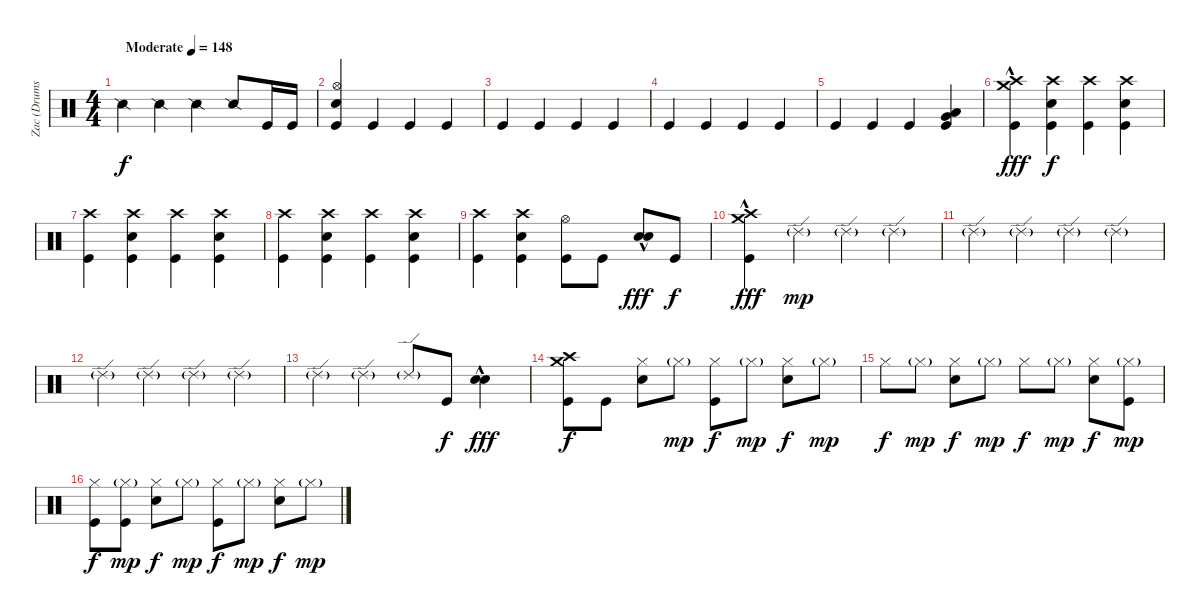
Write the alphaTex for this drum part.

\track ("Zac (Drums)" "Zac (Drums") {instrument percussion}
\staff {score}
\articulation defaults
\ts (4 4)
\tempo (148 "Moderate")
\clef neutral
\ks c "Snare (side stick) 2".4{dy f} "Snare (side stick) 2".4 "Snare (side stick) 2".4 "Snare (side stick) 2".8 "Kick (hit)".16 "Kick (hit)".16
|
("Hi-Hat (open)" "Electric Snare (hit)" "Kick (hit)").4 "Kick (hit)".4 "Kick (hit)".4 "Kick (hit)".4 |
"Kick (hit)".4 "Kick (hit)".4 "Kick (hit)".4 "Kick (hit)".4 |
"Kick (hit)".4 "Kick (hit)".4 "Kick (hit)".4 "Kick (hit)".4 |
"Kick (hit)".4 "Kick (hit)".4 "Kick (hit)".4 ("Low Tom (hit)" "Very Low Tom (hit)" "Kick (hit)").4 |
("Crash high (hit)"{hac} "Crash medium (hit)" "Kick (hit)").4{dy fff} ("Crash high (hit)" "Electric Snare (hit)" "Kick (hit)").4{dy f} ("Crash high (hit)" "Kick (hit)").4 ("Crash high (hit)" "Electric Snare (hit)" "Kick (hit)").4 |
("Crash high (hit)" "Kick (hit)").4 ("Crash high (hit)" "Electric Snare (hit)" "Kick (hit)").4 ("Crash high (hit)" "Kick (hit)").4 ("Crash high (hit)" "Electric Snare (hit)" "Kick (hit)").4 |
("Crash high (hit)" "Kick (hit)").4 ("Crash high (hit)" "Electric Snare (hit)" "Kick (hit)").4 ("Crash high (hit)" "Kick (hit)").4 ("Crash high (hit)" "Electric Snare (hit)" "Kick (hit)").4 |
("Crash high (hit)" "Kick (hit)").4 ("Crash high (hit)" "Electric Snare (hit)" "Kick (hit)").4 ("Hi-Hat (open)" "Kick (hit)").8 "Kick (hit)".8 ("Electric Snare (hit)"{hac} "Electric Snare (hit)"{hac}).8{dy fff} "Kick (hit)".8{dy f} |
("Crash high (hit)"{hac} "Crash medium (hit)" "Kick (hit)").4{dy fff} "Ride (edge) 2"{g}.4{dy mp} "Ride (edge) 2"{g}.4 "Ride (edge) 2"{g}.4 |
"Ride (edge) 2"{g}.4 "Ride (edge) 2"{g}.4 "Ride (edge) 2"{g}.4 "Ride (edge) 2"{g}.4 |
"Ride (edge) 2"{g}.4 "Ride (edge) 2"{g}.4 "Ride (edge) 2"{g}.4 "Ride (edge) 2"{g}.4 |
"Ride (edge) 2"{g}.4 "Ride (edge) 2"{g}.4 "Ride (edge) 2"{g}.8 "Kick (hit)".8{dy f} ("Electric Snare (hit)"{hac} "Electric Snare (hit)"{hac}).4{dy fff} |
("Crash high (hit)" "Crash medium (hit)" "Kick (hit)").8{dy f} "Kick (hit)".8 ("Hi-Hat (closed)" "Electric Snare (hit)").8 "Hi-Hat (closed)"{g}.8{dy mp} ("Hi-Hat (closed)" "Kick (hit)").8{dy f} "Hi-Hat (closed)"{g}.8{dy mp} ("Hi-Hat (closed)" "Electric Snare (hit)").8{dy f} "Hi-Hat (closed)"{g}.8{dy mp} |
"Hi-Hat (closed)".8{dy f} "Hi-Hat (closed)"{g}.8{dy mp} ("Hi-Hat (closed)" "Electric Snare (hit)").8{dy f} "Hi-Hat (closed)"{g}.8{dy mp} "Hi-Hat (closed)".8{dy f} "Hi-Hat (closed)"{g}.8{dy mp} ("Hi-Hat (closed)" "Electric Snare (hit)").8{dy f} ("Hi-Hat (closed)"{g} "Kick (hit)").8{dy mp} |
("Hi-Hat (closed)" "Kick (hit)").8{dy f} ("Hi-Hat (closed)"{g} "Kick (hit)").8{dy mp} ("Hi-Hat (closed)" "Electric Snare (hit)").8{dy f} "Hi-Hat (closed)"{g}.8{dy mp} ("Hi-Hat (closed)" "Kick (hit)").8{dy f} "Hi-Hat (closed)"{g}.8{dy mp} ("Hi-Hat (closed)" "Electric Snare (hit)").8{dy f} "Hi-Hat (closed)"{g}.8{dy mp}
